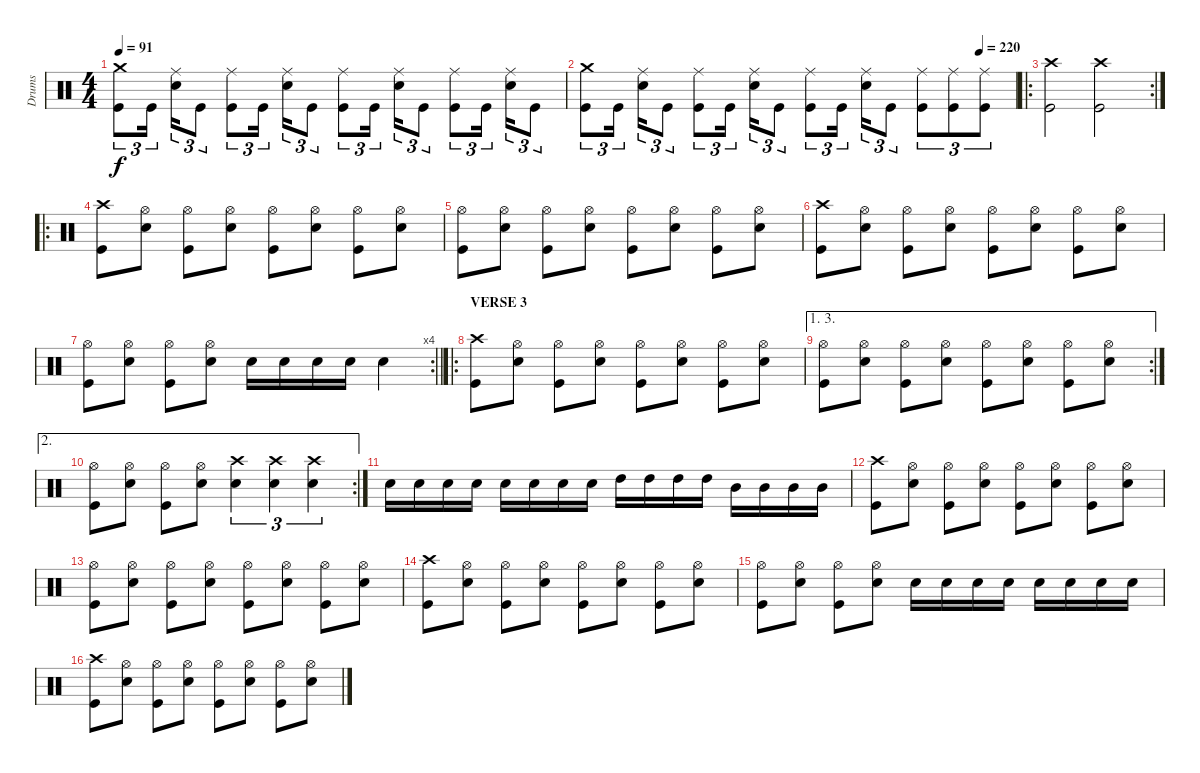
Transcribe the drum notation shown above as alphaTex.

\track ("Drums" "Drums") {instrument percussion}
\staff {score}
\articulation defaults
\ts (4 4)
\tempo 91
\clef neutral
\ks c
("Crash medium (hit)" "Kick (hit)").8{tu (3 2) dy f} "Kick (hit)".16{tu (3 2) beam splitsecondary} ("Ride (middle)" "Snare (hit) 2").16{tu (3 2)} "Kick (hit)".8{tu (3 2)} ("Ride (middle)" "Kick (hit)").8{tu (3 2)} "Kick (hit)".16{tu (3 2) beam splitsecondary} ("Ride (middle)" "Snare (hit) 2").16{tu (3 2)} "Kick (hit)".8{tu (3 2)} ("Ride (middle)" "Kick (hit)").8{tu (3 2)} "Kick (hit)".16{tu (3 2) beam splitsecondary} ("Ride (middle)" "Snare (hit) 2").16{tu (3 2)} "Kick (hit)".8{tu (3 2)} ("Ride (middle)" "Kick (hit)").8{tu (3 2)} "Kick (hit)".16{tu (3 2) beam splitsecondary} ("Ride (middle)" "Snare (hit) 2").16{tu (3 2)} "Kick (hit)".8{tu (3 2)} |
\tempo (220 0.9166666666666666)
("Crash medium (hit)" "Kick (hit)").8{tu (3 2)} "Kick (hit)".16{tu (3 2) beam splitsecondary} ("Ride (middle)" "Snare (hit) 2").16{tu (3 2)} "Kick (hit)".8{tu (3 2)} ("Ride (middle)" "Kick (hit)").8{tu (3 2)} "Kick (hit)".16{tu (3 2) beam splitsecondary} ("Ride (middle)" "Snare (hit) 2").16{tu (3 2)} "Kick (hit)".8{tu (3 2)} ("Ride (middle)" "Kick (hit)").8{tu (3 2)} "Kick (hit)".16{tu (3 2) beam splitsecondary} ("Ride (middle)" "Snare (hit) 2").16{tu (3 2)} "Kick (hit)".8{tu (3 2)} ("Ride (middle)" "Kick (hit)").8{tu (3 2)} ("Ride (middle)" "Kick (hit)").8{tu (3 2)} ("Ride (middle)" "Kick (hit)").8{tu (3 2)} |
\ro
\rc 2
("Crash high (hit)" "Kick (hit)").2 ("Crash high (hit)" "Kick (hit)").2 |
\ro
("Crash high (hit)" "Kick (hit)").8 ("Hi-Hat (open)" "Snare (hit) 2").8 ("Hi-Hat (open)" "Kick (hit)").8 ("Hi-Hat (open)" "Snare (hit) 2").8 ("Hi-Hat (open)" "Kick (hit)").8 ("Hi-Hat (open)" "Snare (hit) 2").8 ("Hi-Hat (open)" "Kick (hit)").8 ("Hi-Hat (open)" "Snare (hit) 2").8 |
("Hi-Hat (open)" "Kick (hit)").8 ("Hi-Hat (open)" "Snare (hit) 2").8 ("Hi-Hat (open)" "Kick (hit)").8 ("Hi-Hat (open)" "Snare (hit) 2").8 ("Hi-Hat (open)" "Kick (hit)").8 ("Hi-Hat (open)" "Snare (hit) 2").8 ("Hi-Hat (open)" "Kick (hit)").8 ("Hi-Hat (open)" "Snare (hit) 2").8 |
("Crash high (hit)" "Kick (hit)").8 ("Hi-Hat (open)" "Snare (hit) 2").8 ("Hi-Hat (open)" "Kick (hit)").8 ("Hi-Hat (open)" "Snare (hit) 2").8 ("Hi-Hat (open)" "Kick (hit)").8 ("Hi-Hat (open)" "Snare (hit) 2").8 ("Hi-Hat (open)" "Kick (hit)").8 ("Hi-Hat (open)" "Snare (hit) 2").8 |
\rc 4
\barLineRight lightlight
("Hi-Hat (open)" "Kick (hit)").8 ("Hi-Hat (open)" "Snare (hit) 2").8 ("Hi-Hat (open)" "Kick (hit)").8 ("Hi-Hat (open)" "Snare (hit) 2").8 "Snare (hit) 2".16 "Snare (hit) 2".16 "Snare (hit) 2".16 "Snare (hit) 2".16 "Snare (hit) 2".4 |
\ro
\section ("" "VERSE 3")
("Crash high (hit)" "Kick (hit)").8 ("Hi-Hat (open)" "Snare (hit) 2").8 ("Hi-Hat (open)" "Kick (hit)").8 ("Hi-Hat (open)" "Snare (hit) 2").8 ("Hi-Hat (open)" "Kick (hit)").8 ("Hi-Hat (open)" "Snare (hit) 2").8 ("Hi-Hat (open)" "Kick (hit)").8 ("Hi-Hat (open)" "Snare (hit) 2").8 |
\ae (1 3)
\rc 2
("Hi-Hat (open)" "Kick (hit)").8 ("Hi-Hat (open)" "Snare (hit) 2").8 ("Hi-Hat (open)" "Kick (hit)").8 ("Hi-Hat (open)" "Snare (hit) 2").8 ("Hi-Hat (open)" "Kick (hit)").8 ("Hi-Hat (open)" "Snare (hit) 2").8 ("Hi-Hat (open)" "Kick (hit)").8 ("Hi-Hat (open)" "Snare (hit) 2").8 |
\ae 2
\rc 2
("Hi-Hat (open)" "Kick (hit)").8 ("Hi-Hat (open)" "Snare (hit) 2").8 ("Hi-Hat (open)" "Kick (hit)").8 ("Hi-Hat (open)" "Snare (hit) 2").8 ("Crash high (hit)" "Snare (hit) 2").4{tu (3 2)} ("Crash high (hit)" "Snare (hit) 2").4{tu (3 2)} ("Crash high (hit)" "Snare (hit) 2").4{tu (3 2)} |
"Snare (hit) 2".16 "Snare (hit) 2".16 "Snare (hit) 2".16 "Snare (hit) 2".16 "Snare (hit) 2".16 "Snare (hit) 2".16 "Snare (hit) 2".16 "Snare (hit) 2".16 "High Tom (hit)".16 "High Tom (hit)".16 "High Tom (hit)".16 "High Tom (hit)".16 "Mid Tom (hit)".16 "Mid Tom (hit)".16 "Mid Tom (hit)".16 "Mid Tom (hit)".16 |
("Crash high (hit)" "Kick (hit)").8 ("Hi-Hat (open)" "Snare (hit) 2").8 ("Hi-Hat (open)" "Kick (hit)").8 ("Hi-Hat (open)" "Snare (hit) 2").8 ("Hi-Hat (open)" "Kick (hit)").8 ("Hi-Hat (open)" "Snare (hit) 2").8 ("Hi-Hat (open)" "Kick (hit)").8 ("Hi-Hat (open)" "Snare (hit) 2").8 |
("Hi-Hat (open)" "Kick (hit)").8 ("Hi-Hat (open)" "Snare (hit) 2").8 ("Hi-Hat (open)" "Kick (hit)").8 ("Hi-Hat (open)" "Snare (hit) 2").8 ("Hi-Hat (open)" "Kick (hit)").8 ("Hi-Hat (open)" "Snare (hit) 2").8 ("Hi-Hat (open)" "Kick (hit)").8 ("Hi-Hat (open)" "Snare (hit) 2").8 |
("Crash high (hit)" "Kick (hit)").8 ("Hi-Hat (open)" "Snare (hit) 2").8 ("Hi-Hat (open)" "Kick (hit)").8 ("Hi-Hat (open)" "Snare (hit) 2").8 ("Hi-Hat (open)" "Kick (hit)").8 ("Hi-Hat (open)" "Snare (hit) 2").8 ("Hi-Hat (open)" "Kick (hit)").8 ("Hi-Hat (open)" "Snare (hit) 2").8 |
("Hi-Hat (open)" "Kick (hit)").8 ("Hi-Hat (open)" "Snare (hit) 2").8 ("Hi-Hat (open)" "Kick (hit)").8 ("Hi-Hat (open)" "Snare (hit) 2").8 "Snare (hit) 2".16 "Snare (hit) 2".16 "Snare (hit) 2".16 "Snare (hit) 2".16 "Snare (hit) 2".16 "Snare (hit) 2".16 "Snare (hit) 2".16 "Snare (hit) 2".16 |
("Crash high (hit)" "Kick (hit)").8 ("Hi-Hat (open)" "Snare (hit) 2").8 ("Hi-Hat (open)" "Kick (hit)").8 ("Hi-Hat (open)" "Snare (hit) 2").8 ("Hi-Hat (open)" "Kick (hit)").8 ("Hi-Hat (open)" "Snare (hit) 2").8 ("Hi-Hat (open)" "Kick (hit)").8 ("Hi-Hat (open)" "Snare (hit) 2").8
